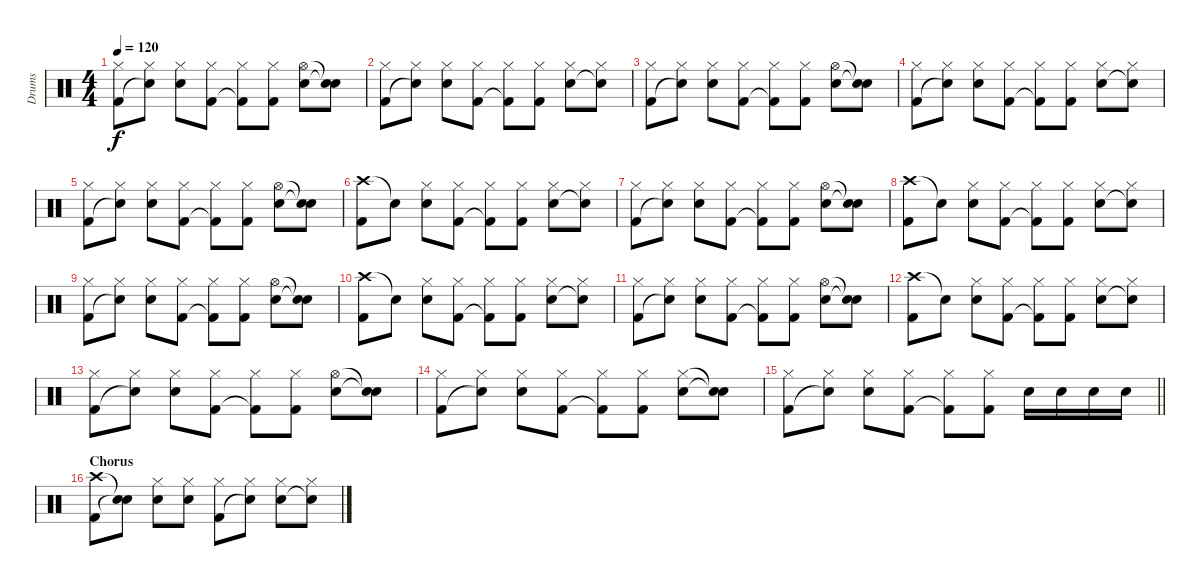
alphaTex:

\track ("Drums" "Drums") {instrument percussion}
\staff {score}
\articulation defaults
\ts (4 4)
\tempo 120
\clef neutral
\ks c
("Hi-Hat (closed)" "Kick (hit) 2").8{dy f} ("Hi-Hat (closed)" "Snare (hit)"{t}).8 ("Hi-Hat (closed)" "Snare (hit) 2").8 ("Hi-Hat (closed)" "Kick (hit) 2").8 ("Hi-Hat (closed)" "Kick (hit) 2"{t}).8 ("Hi-Hat (closed)" "Kick (hit) 2").8 ("Hi-Hat (open)" "Snare (hit) 2").8 ("Snare (hit)"{t} "Snare (hit)"{t}).8 |
("Hi-Hat (closed)" "Kick (hit) 2").8 ("Hi-Hat (closed)" "Snare (hit)"{t}).8 ("Hi-Hat (closed)" "Snare (hit) 2").8 ("Hi-Hat (closed)" "Kick (hit) 2").8 ("Hi-Hat (closed)" "Kick (hit) 2"{t}).8 ("Hi-Hat (closed)" "Kick (hit) 2").8 ("Hi-Hat (closed)" "Snare (hit) 2").8 ("Hi-Hat (closed)" "Snare (hit)"{t}).8 |
("Hi-Hat (closed)" "Kick (hit) 2").8 ("Hi-Hat (closed)" "Snare (hit)"{t}).8 ("Hi-Hat (closed)" "Snare (hit) 2").8 ("Hi-Hat (closed)" "Kick (hit) 2").8 ("Hi-Hat (closed)" "Kick (hit) 2"{t}).8 ("Hi-Hat (closed)" "Kick (hit) 2").8 ("Hi-Hat (open)" "Snare (hit) 2").8 ("Snare (hit)"{t} "Snare (hit)"{t}).8 |
("Hi-Hat (closed)" "Kick (hit) 2").8 ("Hi-Hat (closed)" "Snare (hit)"{t}).8 ("Hi-Hat (closed)" "Snare (hit) 2").8 ("Hi-Hat (closed)" "Kick (hit) 2").8 ("Hi-Hat (closed)" "Kick (hit) 2"{t}).8 ("Hi-Hat (closed)" "Kick (hit) 2").8 ("Hi-Hat (closed)" "Snare (hit) 2").8 ("Hi-Hat (closed)" "Snare (hit)"{t}).8 |
("Hi-Hat (closed)" "Kick (hit) 2").8 ("Hi-Hat (closed)" "Snare (hit)"{t}).8 ("Hi-Hat (closed)" "Snare (hit) 2").8 ("Hi-Hat (closed)" "Kick (hit) 2").8 ("Hi-Hat (closed)" "Kick (hit) 2"{t}).8 ("Hi-Hat (closed)" "Kick (hit) 2").8 ("Hi-Hat (open)" "Snare (hit) 2").8 ("Snare (hit)"{t} "Snare (hit)"{t}).8 |
("Crash high (hit)" "Kick (hit) 2").8 "Snare (hit)"{t}.8 ("Hi-Hat (closed)" "Snare (hit) 2").8 ("Hi-Hat (closed)" "Kick (hit) 2").8 ("Hi-Hat (closed)" "Kick (hit) 2"{t}).8 ("Hi-Hat (closed)" "Kick (hit) 2").8 ("Hi-Hat (closed)" "Snare (hit) 2").8 ("Hi-Hat (closed)" "Snare (hit)"{t}).8 |
("Hi-Hat (closed)" "Kick (hit) 2").8 ("Hi-Hat (closed)" "Snare (hit)"{t}).8 ("Hi-Hat (closed)" "Snare (hit) 2").8 ("Hi-Hat (closed)" "Kick (hit) 2").8 ("Hi-Hat (closed)" "Kick (hit) 2"{t}).8 ("Hi-Hat (closed)" "Kick (hit) 2").8 ("Hi-Hat (open)" "Snare (hit) 2").8 ("Snare (hit)"{t} "Snare (hit)"{t}).8 |
("Crash high (hit)" "Kick (hit) 2").8 "Snare (hit)"{t}.8 ("Hi-Hat (closed)" "Snare (hit) 2").8 ("Hi-Hat (closed)" "Kick (hit) 2").8 ("Hi-Hat (closed)" "Kick (hit) 2"{t}).8 ("Hi-Hat (closed)" "Kick (hit) 2").8 ("Hi-Hat (closed)" "Snare (hit) 2").8 ("Hi-Hat (closed)" "Snare (hit)"{t}).8 |
("Hi-Hat (closed)" "Kick (hit) 2").8 ("Hi-Hat (closed)" "Snare (hit)"{t}).8 ("Hi-Hat (closed)" "Snare (hit) 2").8 ("Hi-Hat (closed)" "Kick (hit) 2").8 ("Hi-Hat (closed)" "Kick (hit) 2"{t}).8 ("Hi-Hat (closed)" "Kick (hit) 2").8 ("Hi-Hat (open)" "Snare (hit) 2").8 ("Snare (hit)"{t} "Snare (hit)"{t}).8 |
("Crash high (hit)" "Kick (hit) 2").8 "Snare (hit)"{t}.8 ("Hi-Hat (closed)" "Snare (hit) 2").8 ("Hi-Hat (closed)" "Kick (hit) 2").8 ("Hi-Hat (closed)" "Kick (hit) 2"{t}).8 ("Hi-Hat (closed)" "Kick (hit) 2").8 ("Hi-Hat (closed)" "Snare (hit) 2").8 ("Hi-Hat (closed)" "Snare (hit)"{t}).8 |
("Hi-Hat (closed)" "Kick (hit) 2").8 ("Hi-Hat (closed)" "Snare (hit)"{t}).8 ("Hi-Hat (closed)" "Snare (hit) 2").8 ("Hi-Hat (closed)" "Kick (hit) 2").8 ("Hi-Hat (closed)" "Kick (hit) 2"{t}).8 ("Hi-Hat (closed)" "Kick (hit) 2").8 ("Hi-Hat (open)" "Snare (hit) 2").8 ("Snare (hit)"{t} "Snare (hit)"{t}).8 |
("Crash high (hit)" "Kick (hit) 2").8 "Snare (hit)"{t}.8 ("Hi-Hat (closed)" "Snare (hit) 2").8 ("Hi-Hat (closed)" "Kick (hit) 2").8 ("Hi-Hat (closed)" "Kick (hit) 2"{t}).8 ("Hi-Hat (closed)" "Kick (hit) 2").8 ("Hi-Hat (closed)" "Snare (hit) 2").8 ("Hi-Hat (closed)" "Snare (hit)"{t}).8 |
("Hi-Hat (closed)" "Kick (hit) 2").8 ("Hi-Hat (closed)" "Snare (hit)"{t}).8 ("Hi-Hat (closed)" "Snare (hit) 2").8 ("Hi-Hat (closed)" "Kick (hit) 2").8 ("Hi-Hat (closed)" "Kick (hit) 2"{t}).8 ("Hi-Hat (closed)" "Kick (hit) 2").8 ("Hi-Hat (open)" "Snare (hit) 2").8 ("Snare (hit)"{t} "Snare (hit)"{t}).8 |
("Hi-Hat (closed)" "Kick (hit) 2").8 ("Hi-Hat (closed)" "Snare (hit)"{t}).8 ("Hi-Hat (closed)" "Snare (hit) 2").8 ("Hi-Hat (closed)" "Kick (hit) 2").8 ("Hi-Hat (closed)" "Kick (hit) 2"{t}).8 ("Hi-Hat (closed)" "Kick (hit) 2").8 ("Hi-Hat (closed)" "Snare (hit) 2").8 ("Snare (hit)"{t} "Snare (hit)"{t}).8 |
\barLineRight lightlight
("Hi-Hat (closed)" "Kick (hit) 2").8 ("Hi-Hat (closed)" "Snare (hit)"{t}).8 ("Hi-Hat (closed)" "Snare (hit) 2").8 ("Hi-Hat (closed)" "Kick (hit) 2").8 ("Hi-Hat (closed)" "Kick (hit) 2"{t}).8 ("Hi-Hat (closed)" "Kick (hit) 2").8 "Snare (hit) 2".16 "Snare (hit) 2".16 "Snare (hit) 2".16 "Snare (hit) 2".16 |
\section ("" "Chorus")
("Crash high (hit)" "Kick (hit) 2").8 ("Snare (hit)"{t} "Snare (hit)"{t}).8 ("Hi-Hat (closed)" "Snare (hit) 2").8 ("Hi-Hat (closed)" "Snare (hit) 2").8 ("Hi-Hat (closed)" "Kick (hit) 2").8 ("Hi-Hat (closed)" "Snare (hit)"{t}).8 ("Hi-Hat (closed)" "Snare (hit) 2").8 ("Hi-Hat (closed)" "Snare (hit)"{t}).8
